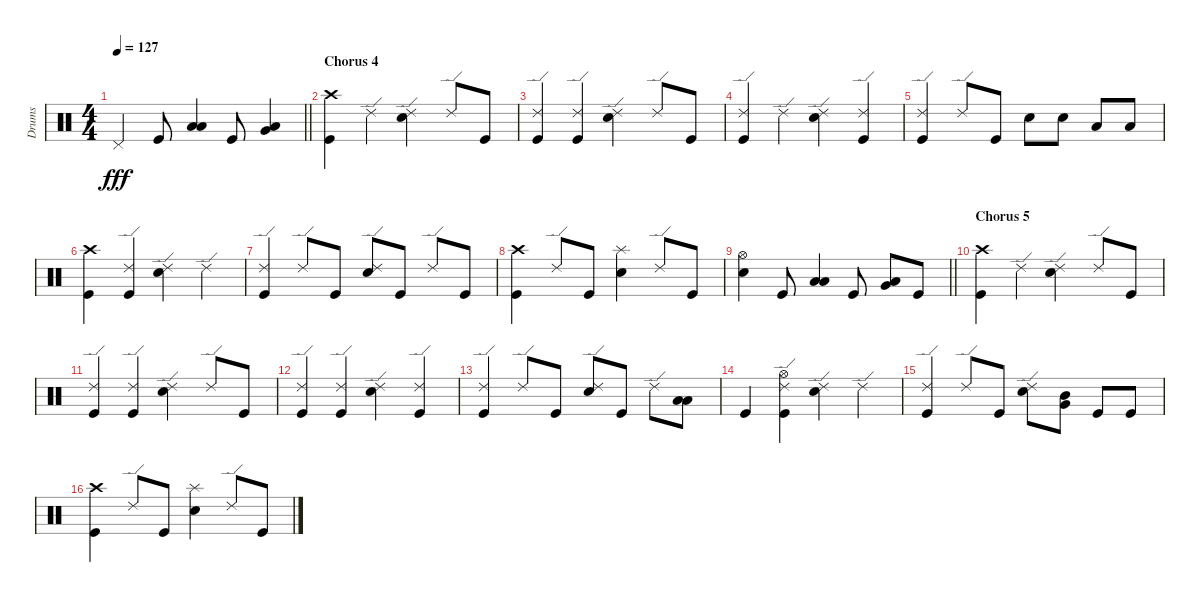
\track ("Drums" "Drums") {instrument percussion}
\staff {score}
\articulation defaults
\ts (4 4)
\tempo 127
\clef neutral
\barLineRight lightlight
\ks c "Pedal Hi-Hat (hit)".4{dy fff} "Kick (hit)".8
("Low Floor Tom (hit)" "Low Tom (hit)").4 "Kick (hit)".8 ("Low Floor Tom (hit)" "Very Low Tom (hit)").4 |
\section ("" "Chorus 4")
("Kick (hit)" "Crash high (hit)").4 "Ride (edge) 2".4 ("Snare (hit) 2" "Ride (edge) 2").4 "Ride (edge) 2".8 "Kick (hit)".8 |
("Kick (hit)" "Ride (edge) 2").4 ("Kick (hit)" "Ride (edge) 2").4 ("Snare (hit) 2" "Ride (edge) 2").4 "Ride (edge) 2".8 "Kick (hit)".8 |
("Kick (hit)" "Ride (edge) 2").4 "Ride (edge) 2".4 ("Snare (hit) 2" "Ride (edge) 2").4 ("Kick (hit)" "Ride (edge) 2").4 |
("Kick (hit)" "Ride (edge) 2").4 "Ride (edge) 2".8 "Kick (hit)".8 "Snare (hit) 2".8 "Snare (hit) 2".8 "Low Tom (hit)".8 "Low Floor Tom (hit)".8 |
("Kick (hit)" "Crash high (hit)").4 ("Kick (hit)" "Ride (edge) 2").4 ("Snare (hit) 2" "Ride (edge) 2").4 "Ride (edge) 2".4 |
("Ride (edge) 2" "Kick (hit)").4 "Ride (edge) 2".8 "Kick (hit)".8 ("Ride (edge) 2" "Snare (hit) 2").8 "Kick (hit)".8 "Ride (edge) 2".8 "Kick (hit)".8 |
("Kick (hit)" "Crash high (hit)").4 "Ride (edge) 2".8 "Kick (hit)".8 ("Snare (hit) 2" "Splash (hit)").4 "Ride (edge) 2".8 "Kick (hit)".8 |
\barLineRight lightlight
("Snare (hit) 2" "Hi-Hat (open)").4 "Kick (hit)".8 ("Low Floor Tom (hit)" "Low Tom (hit)").4 "Kick (hit)".8 ("Low Floor Tom (hit)" "Very Low Tom (hit)").8 "Kick (hit)".8 |
\section ("" "Chorus 5")
("Kick (hit)" "Crash high (hit)").4 "Ride (edge) 2".4 ("Snare (hit) 2" "Ride (edge) 2").4 "Ride (edge) 2".8 "Kick (hit)".8 |
("Kick (hit)" "Ride (edge) 2").4 ("Kick (hit)" "Ride (edge) 2").4 ("Snare (hit) 2" "Ride (edge) 2").4 "Ride (edge) 2".8 "Kick (hit)".8 |
("Kick (hit)" "Ride (edge) 2").4 ("Kick (hit)" "Ride (edge) 2").4 ("Snare (hit) 2" "Ride (edge) 2").4 ("Kick (hit)" "Ride (edge) 2").4 |
("Kick (hit)" "Ride (edge) 2").4 "Ride (edge) 2".8 "Kick (hit)".8 ("Snare (hit) 2" "Ride (edge) 2").8 "Kick (hit)".8 "Ride (edge) 2".8 ("Low Tom (hit)" "Low Floor Tom (hit)").8 |
"Kick (hit)".4 ("Kick (hit)" "Hi-Hat (open)" "Ride (edge) 2").4 ("Snare (hit) 2" "Ride (edge) 2").4 "Ride (edge) 2".4 |
("Ride (edge) 2" "Kick (hit)").4 "Ride (edge) 2".8 "Kick (hit)".8 ("Ride (edge) 2" "Snare (hit) 2").8 ("Mid Tom (hit)" "Very Low Tom (hit)").8 "Kick (hit)".8 "Kick (hit)".8 |
("Kick (hit)" "Crash high (hit)").4 "Ride (edge) 2".8 "Kick (hit)".8 ("Snare (hit) 2" "Splash (hit)").4 "Ride (edge) 2".8 "Kick (hit)".8
